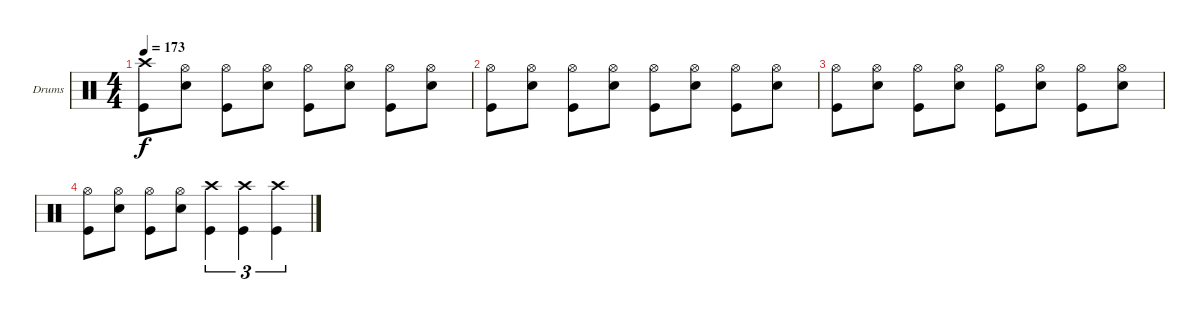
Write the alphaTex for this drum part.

\bracketExtendMode groupsimilarinstruments
\firstSystemTrackNameOrientation horizontal
\otherSystemsTrackNameOrientation horizontal
\track ("Drums" "Drums") {instrument percussion}
\staff {score}
\articulation defaults
\ts (4 4)
\tempo 173
\clef neutral
\ks c
("Crash high (hit)" "Kick (hit)").8{dy f} ("Snare (hit) 2" "Hi-Hat (open)").8 ("Kick (hit)" "Hi-Hat (open)").8 ("Snare (hit) 2" "Hi-Hat (open)").8 ("Kick (hit)" "Hi-Hat (open)").8 ("Hi-Hat (open)" "Snare (hit) 2").8 ("Hi-Hat (open)" "Kick (hit)").8 ("Hi-Hat (open)" "Snare (hit) 2").8 |
("Hi-Hat (open)" "Kick (hit)").8 ("Hi-Hat (open)" "Snare (hit) 2").8 ("Hi-Hat (open)" "Kick (hit)").8 ("Hi-Hat (open)" "Snare (hit) 2").8 ("Hi-Hat (open)" "Kick (hit)").8 ("Hi-Hat (open)" "Snare (hit) 2").8 ("Hi-Hat (open)" "Kick (hit)").8 ("Hi-Hat (open)" "Snare (hit) 2").8 |
("Hi-Hat (open)" "Kick (hit)").8 ("Hi-Hat (open)" "Snare (hit) 2").8 ("Hi-Hat (open)" "Kick (hit)").8 ("Hi-Hat (open)" "Snare (hit) 2").8 ("Hi-Hat (open)" "Kick (hit)").8 ("Hi-Hat (open)" "Snare (hit) 2").8 ("Hi-Hat (open)" "Kick (hit)").8 ("Hi-Hat (open)" "Snare (hit) 2").8 |
("Hi-Hat (open)" "Kick (hit)").8 ("Hi-Hat (open)" "Snare (hit) 2").8 ("Hi-Hat (open)" "Kick (hit)").8 ("Hi-Hat (open)" "Snare (hit) 2").8 ("Crash high (hit)" "Kick (hit)").4{tu (3 2)} ("Crash high (hit)" "Kick (hit)").4{tu (3 2)} ("Crash high (hit)" "Kick (hit)").4{tu (3 2)}
